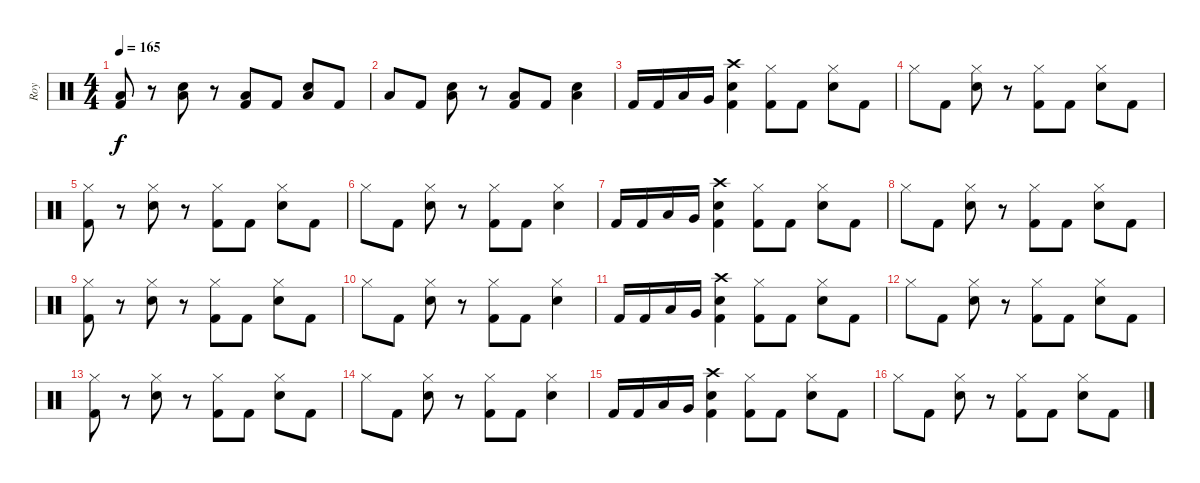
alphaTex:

\track ("Roy" "Roy") {instrument percussion}
\staff {score}
\articulation defaults
\ts (4 4)
\tempo 165
\clef neutral
\ks c
("Low Tom (hit)" "Kick (hit) 2").8{dy f} r.8 ("Electric Snare (hit)" "Low Tom (hit)").8 r.8 ("Low Tom (hit)" "Kick (hit) 2").8 "Kick (hit) 2".8 ("Electric Snare (hit)" "Low Tom (hit)").8 "Kick (hit) 2".8 |
"Low Tom (hit)".8 "Kick (hit) 2".8 ("Electric Snare (hit)" "Low Tom (hit)").8 r.8 ("Low Tom (hit)" "Kick (hit) 2").8 "Kick (hit) 2".8 ("Electric Snare (hit)" "Low Tom (hit)").4 |
"Kick (hit) 2".16 "Kick (hit) 2".16 "Low Tom (hit)".16 "Very Low Tom (hit)".16 ("Crash high (hit)" "Electric Snare (hit)" "Kick (hit) 2").4 ("Hi-Hat (closed)" "Kick (hit) 2").8 "Kick (hit) 2".8 ("Hi-Hat (closed)" "Electric Snare (hit)").8 "Kick (hit) 2".8 |
"Hi-Hat (closed)".8 "Kick (hit) 2".8 ("Hi-Hat (closed)" "Electric Snare (hit)").8 r.8 ("Hi-Hat (closed)" "Kick (hit) 2").8 "Kick (hit) 2".8 ("Hi-Hat (closed)" "Electric Snare (hit)").8 "Kick (hit) 2".8 |
("Hi-Hat (closed)" "Kick (hit) 2").8 r.8 ("Hi-Hat (closed)" "Electric Snare (hit)").8 r.8 ("Hi-Hat (closed)" "Kick (hit) 2").8 "Kick (hit) 2".8 ("Hi-Hat (closed)" "Electric Snare (hit)").8 "Kick (hit) 2".8 |
"Hi-Hat (closed)".8 "Kick (hit) 2".8 ("Hi-Hat (closed)" "Electric Snare (hit)").8 r.8 ("Hi-Hat (closed)" "Kick (hit) 2").8 "Kick (hit) 2".8 ("Hi-Hat (closed)" "Electric Snare (hit)").4 |
"Kick (hit) 2".16 "Kick (hit) 2".16 "Low Tom (hit)".16 "Very Low Tom (hit)".16 ("Crash high (hit)" "Electric Snare (hit)" "Kick (hit) 2").4 ("Hi-Hat (closed)" "Kick (hit) 2").8 "Kick (hit) 2".8 ("Hi-Hat (closed)" "Electric Snare (hit)").8 "Kick (hit) 2".8 |
"Hi-Hat (closed)".8 "Kick (hit) 2".8 ("Hi-Hat (closed)" "Electric Snare (hit)").8 r.8 ("Hi-Hat (closed)" "Kick (hit) 2").8 "Kick (hit) 2".8 ("Hi-Hat (closed)" "Electric Snare (hit)").8 "Kick (hit) 2".8 |
("Hi-Hat (closed)" "Kick (hit) 2").8 r.8 ("Hi-Hat (closed)" "Electric Snare (hit)").8 r.8 ("Hi-Hat (closed)" "Kick (hit) 2").8 "Kick (hit) 2".8 ("Hi-Hat (closed)" "Electric Snare (hit)").8 "Kick (hit) 2".8 |
"Hi-Hat (closed)".8 "Kick (hit) 2".8 ("Hi-Hat (closed)" "Electric Snare (hit)").8 r.8 ("Hi-Hat (closed)" "Kick (hit) 2").8 "Kick (hit) 2".8 ("Hi-Hat (closed)" "Electric Snare (hit)").4 |
"Kick (hit) 2".16 "Kick (hit) 2".16 "Low Tom (hit)".16 "Very Low Tom (hit)".16 ("Crash high (hit)" "Electric Snare (hit)" "Kick (hit) 2").4 ("Hi-Hat (closed)" "Kick (hit) 2").8 "Kick (hit) 2".8 ("Hi-Hat (closed)" "Electric Snare (hit)").8 "Kick (hit) 2".8 |
"Hi-Hat (closed)".8 "Kick (hit) 2".8 ("Hi-Hat (closed)" "Electric Snare (hit)").8 r.8 ("Hi-Hat (closed)" "Kick (hit) 2").8 "Kick (hit) 2".8 ("Hi-Hat (closed)" "Electric Snare (hit)").8 "Kick (hit) 2".8 |
("Hi-Hat (closed)" "Kick (hit) 2").8 r.8 ("Hi-Hat (closed)" "Electric Snare (hit)").8 r.8 ("Hi-Hat (closed)" "Kick (hit) 2").8 "Kick (hit) 2".8 ("Hi-Hat (closed)" "Electric Snare (hit)").8 "Kick (hit) 2".8 |
"Hi-Hat (closed)".8 "Kick (hit) 2".8 ("Hi-Hat (closed)" "Electric Snare (hit)").8 r.8 ("Hi-Hat (closed)" "Kick (hit) 2").8 "Kick (hit) 2".8 ("Hi-Hat (closed)" "Electric Snare (hit)").4 |
"Kick (hit) 2".16 "Kick (hit) 2".16 "Low Tom (hit)".16 "Very Low Tom (hit)".16 ("Crash high (hit)" "Electric Snare (hit)" "Kick (hit) 2").4 ("Hi-Hat (closed)" "Kick (hit) 2").8 "Kick (hit) 2".8 ("Hi-Hat (closed)" "Electric Snare (hit)").8 "Kick (hit) 2".8 |
"Hi-Hat (closed)".8 "Kick (hit) 2".8 ("Hi-Hat (closed)" "Electric Snare (hit)").8 r.8 ("Hi-Hat (closed)" "Kick (hit) 2").8 "Kick (hit) 2".8 ("Hi-Hat (closed)" "Electric Snare (hit)").8 "Kick (hit) 2".8
